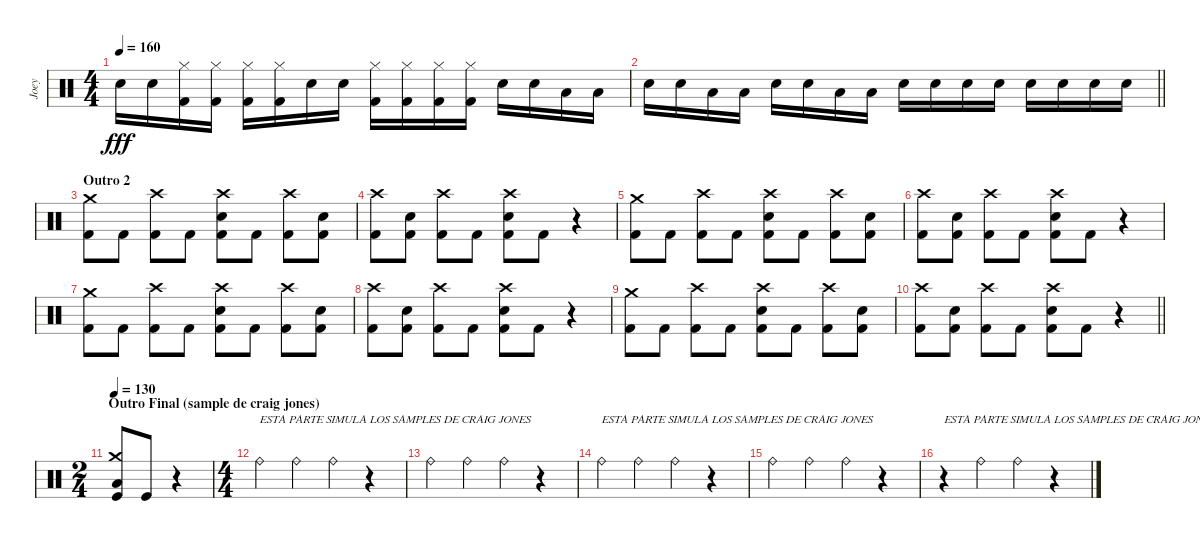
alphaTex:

\track ("Joey" "Joey") {instrument percussion}
\staff {score}
\articulation defaults
\ts (4 4)
\tempo 160
\clef neutral
\ks c "Electric Snare (hit)".16{dy fff} "Electric Snare (hit)".16
("Hi-Hat (closed)" "Kick (hit) 2").16 ("Hi-Hat (closed)" "Kick (hit) 2").16 ("Hi-Hat (closed)" "Kick (hit) 2").16 ("Hi-Hat (closed)" "Kick (hit) 2").16 "Electric Snare (hit)".16 "Electric Snare (hit)".16 ("Hi-Hat (closed)" "Kick (hit) 2").16 ("Hi-Hat (closed)" "Kick (hit) 2").16 ("Hi-Hat (closed)" "Kick (hit) 2").16 ("Hi-Hat (closed)" "Kick (hit) 2").16 "Electric Snare (hit)".16 "Electric Snare (hit)".16 "Low Tom (hit)".16 "Low Tom (hit)".16 |
\barLineRight lightlight "Electric Snare (hit)".16 "Electric Snare (hit)".16 "Low Tom (hit)".16 "Low Tom (hit)".16 "Electric Snare (hit)".16 "Electric Snare (hit)".16 "Low Tom (hit)".16 "Low Tom (hit)".16 "Electric Snare (hit)".16 "Electric Snare (hit)".16 "Electric Snare (hit)".16 "Electric Snare (hit)".16 "Electric Snare (hit)".16 "Electric Snare (hit)".16 "Electric Snare (hit)".16 "Electric Snare (hit)".16
|
\section ("" "Outro 2")
("Crash medium (hit)" "Kick (hit) 2").8 "Kick (hit) 2".8 ("Crash high (hit)" "Kick (hit) 2").8 "Kick (hit) 2".8 ("Crash high (hit)" "Electric Snare (hit)" "Kick (hit) 2").8 "Kick (hit) 2".8 ("Crash high (hit)" "Kick (hit) 2").8 ("Electric Snare (hit)" "Kick (hit) 2").8 |
("Crash high (hit)" "Kick (hit) 2").8 ("Electric Snare (hit)" "Kick (hit) 2").8 ("Crash high (hit)" "Kick (hit) 2").8 "Kick (hit) 2".8 ("Crash high (hit)" "Electric Snare (hit)" "Kick (hit) 2").8 "Kick (hit) 2".8 r.4 |
("Crash medium (hit)" "Kick (hit) 2").8 "Kick (hit) 2".8 ("Crash high (hit)" "Kick (hit) 2").8 "Kick (hit) 2".8 ("Crash high (hit)" "Electric Snare (hit)" "Kick (hit) 2").8 "Kick (hit) 2".8 ("Crash high (hit)" "Kick (hit) 2").8 ("Electric Snare (hit)" "Kick (hit) 2").8 |
("Crash high (hit)" "Kick (hit) 2").8 ("Electric Snare (hit)" "Kick (hit) 2").8 ("Crash high (hit)" "Kick (hit) 2").8 "Kick (hit) 2".8 ("Crash high (hit)" "Electric Snare (hit)" "Kick (hit) 2").8 "Kick (hit) 2".8 r.4 |
("Crash medium (hit)" "Kick (hit) 2").8 "Kick (hit) 2".8 ("Crash high (hit)" "Kick (hit) 2").8 "Kick (hit) 2".8 ("Crash high (hit)" "Electric Snare (hit)" "Kick (hit) 2").8 "Kick (hit) 2".8 ("Crash high (hit)" "Kick (hit) 2").8 ("Electric Snare (hit)" "Kick (hit) 2").8 |
("Crash high (hit)" "Kick (hit) 2").8 ("Electric Snare (hit)" "Kick (hit) 2").8 ("Crash high (hit)" "Kick (hit) 2").8 "Kick (hit) 2".8 ("Crash high (hit)" "Electric Snare (hit)" "Kick (hit) 2").8 "Kick (hit) 2".8 r.4 |
("Crash medium (hit)" "Kick (hit) 2").8 "Kick (hit) 2".8 ("Crash high (hit)" "Kick (hit) 2").8 "Kick (hit) 2".8 ("Crash high (hit)" "Electric Snare (hit)" "Kick (hit) 2").8 "Kick (hit) 2".8 ("Crash high (hit)" "Kick (hit) 2").8 ("Electric Snare (hit)" "Kick (hit) 2").8 |
\barLineRight lightlight
("Crash high (hit)" "Kick (hit) 2").8 ("Electric Snare (hit)" "Kick (hit) 2").8 ("Crash high (hit)" "Kick (hit) 2").8 "Kick (hit) 2".8 ("Crash high (hit)" "Electric Snare (hit)" "Kick (hit) 2").8 "Kick (hit) 2".8 r.4 |
\ts (2 4)
\section ("" "Outro Final (sample de craig jones)")
\tempo 120
\tempo 130
("Crash medium (hit)" "Low Tom (hit)" "Kick (hit)").8 "Kick (hit)".8 r.4 |
\ts (4 4)
"Ride (bell)".4{txt "ESTA PARTE SIMULA LOS SAMPLES DE CRAIG JONES"} "Ride (bell)".4 "Ride (bell)".4 r.4 |
"Ride (bell)".4 "Ride (bell)".4 "Ride (bell)".4 r.4 |
"Ride (bell)".4{txt "ESTA PARTE SIMULA LOS SAMPLES DE CRAIG JONES"} "Ride (bell)".4 "Ride (bell)".4 r.4 |
"Ride (bell)".4 "Ride (bell)".4 "Ride (bell)".4 r.4 |
r.4{txt "ESTA PARTE SIMULA LOS SAMPLES DE CRAIG JONES"} "Ride (bell)".4 "Ride (bell)".4 r.4
